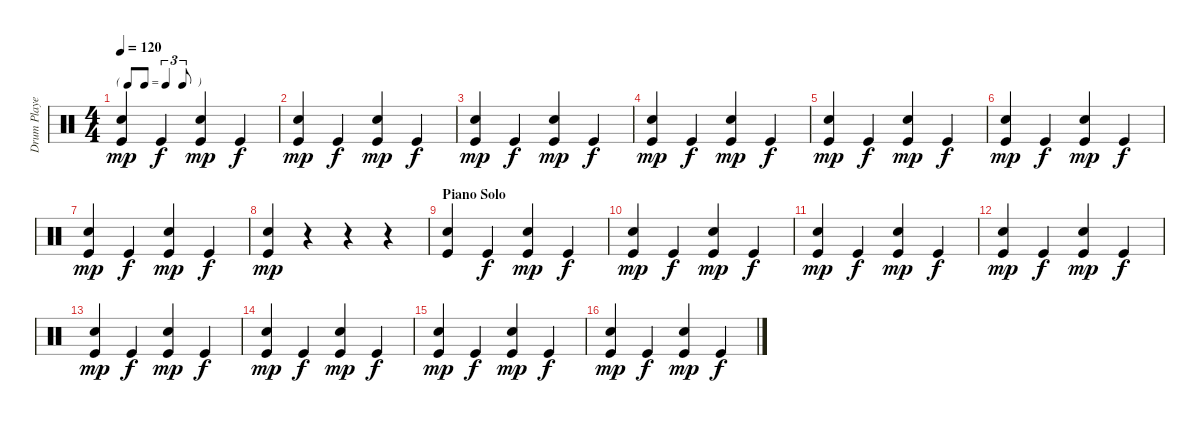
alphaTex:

\track ("Drum Player" "Drum Playe") {instrument percussion}
\staff {score}
\articulation defaults
\ts (4 4)
\tf triplet8th
\tempo 120
\clef neutral
\ks c
("Hand Clap (hit)" "Kick (hit)").4{dy mp} "Kick (hit)".4{dy f} ("Hand Clap (hit)" "Kick (hit)").4{dy mp} "Kick (hit)".4{dy f} |
("Hand Clap (hit)" "Kick (hit)").4{dy mp} "Kick (hit)".4{dy f} ("Hand Clap (hit)" "Kick (hit)").4{dy mp} "Kick (hit)".4{dy f} |
("Hand Clap (hit)" "Kick (hit)").4{dy mp} "Kick (hit)".4{dy f} ("Hand Clap (hit)" "Kick (hit)").4{dy mp} "Kick (hit)".4{dy f} |
("Hand Clap (hit)" "Kick (hit)").4{dy mp} "Kick (hit)".4{dy f} ("Hand Clap (hit)" "Kick (hit)").4{dy mp} "Kick (hit)".4{dy f} |
("Hand Clap (hit)" "Kick (hit)").4{dy mp} "Kick (hit)".4{dy f} ("Hand Clap (hit)" "Kick (hit)").4{dy mp} "Kick (hit)".4{dy f} |
("Hand Clap (hit)" "Kick (hit)").4{dy mp} "Kick (hit)".4{dy f} ("Hand Clap (hit)" "Kick (hit)").4{dy mp} "Kick (hit)".4{dy f} |
("Hand Clap (hit)" "Kick (hit)").4{dy mp} "Kick (hit)".4{dy f} ("Hand Clap (hit)" "Kick (hit)").4{dy mp} "Kick (hit)".4{dy f} |
("Hand Clap (hit)" "Kick (hit)").4{dy mp} r.4 r.4 r.4 |
\section ("" "Piano Solo")
("Hand Clap (hit)" "Kick (hit)").4 "Kick (hit)".4{dy f} ("Hand Clap (hit)" "Kick (hit)").4{dy mp} "Kick (hit)".4{dy f} |
("Hand Clap (hit)" "Kick (hit)").4{dy mp} "Kick (hit)".4{dy f} ("Hand Clap (hit)" "Kick (hit)").4{dy mp} "Kick (hit)".4{dy f} |
("Hand Clap (hit)" "Kick (hit)").4{dy mp} "Kick (hit)".4{dy f} ("Hand Clap (hit)" "Kick (hit)").4{dy mp} "Kick (hit)".4{dy f} |
("Hand Clap (hit)" "Kick (hit)").4{dy mp} "Kick (hit)".4{dy f} ("Hand Clap (hit)" "Kick (hit)").4{dy mp} "Kick (hit)".4{dy f} |
("Hand Clap (hit)" "Kick (hit)").4{dy mp} "Kick (hit)".4{dy f} ("Hand Clap (hit)" "Kick (hit)").4{dy mp} "Kick (hit)".4{dy f} |
("Hand Clap (hit)" "Kick (hit)").4{dy mp} "Kick (hit)".4{dy f} ("Hand Clap (hit)" "Kick (hit)").4{dy mp} "Kick (hit)".4{dy f} |
("Hand Clap (hit)" "Kick (hit)").4{dy mp} "Kick (hit)".4{dy f} ("Hand Clap (hit)" "Kick (hit)").4{dy mp} "Kick (hit)".4{dy f} |
("Hand Clap (hit)" "Kick (hit)").4{dy mp} "Kick (hit)".4{dy f} ("Hand Clap (hit)" "Kick (hit)").4{dy mp} "Kick (hit)".4{dy f}
